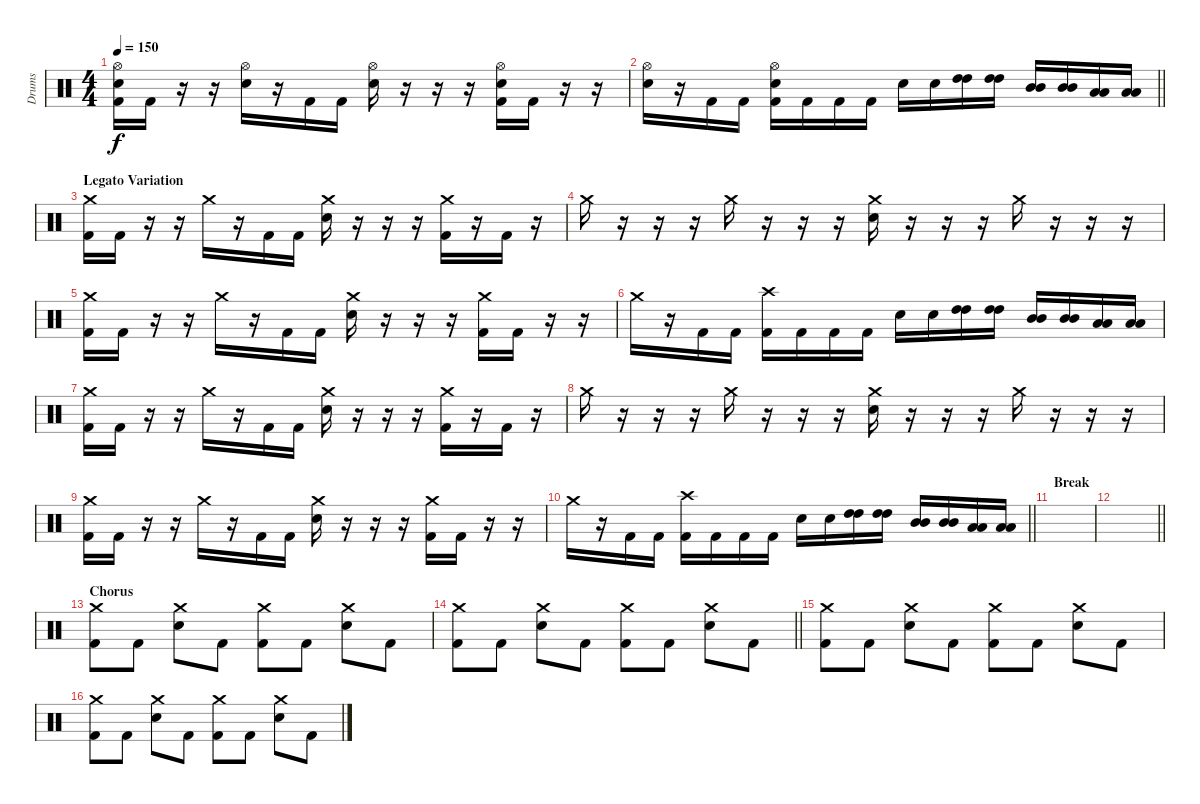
\track ("Drums" "Drums") {instrument percussion}
\staff {score}
\articulation defaults
\ts (4 4)
\tempo 150
\clef neutral
\ks c
("Hi-Hat (open)" "Electric Snare (hit)" "Kick (hit) 2").16{dy f} "Kick (hit) 2".16 r.16 r.16 ("Hi-Hat (open)" "Electric Snare (hit)").16 r.16 "Kick (hit) 2".16 "Kick (hit) 2".16 ("Hi-Hat (open)" "Electric Snare (hit)").16 r.16 r.16 r.16 ("Hi-Hat (open)" "Electric Snare (hit)" "Kick (hit) 2").16 "Kick (hit) 2".16 r.16 r.16 |
\barLineRight lightlight
("Hi-Hat (open)" "Electric Snare (hit)").16 r.16 "Kick (hit) 2".16 "Kick (hit) 2".16 ("Hi-Hat (open)" "Electric Snare (hit)" "Kick (hit) 2").16 "Kick (hit) 2".16 "Kick (hit) 2".16 "Kick (hit) 2".16 "Electric Snare (hit)".16 "Electric Snare (hit)".16 ("High Tom (hit)" "High Tom (hit)").16 ("High Tom (hit)" "High Tom (hit)").16 ("Mid Tom (hit)" "Mid Tom (hit)").16 ("Mid Tom (hit)" "Mid Tom (hit)").16 ("Low Tom (hit)" "Low Tom (hit)").16 ("Low Tom (hit)" "Low Tom (hit)").16 |
\section ("" "Legato Variation")
("Crash medium (hit)" "Kick (hit) 2").16 "Kick (hit) 2".16 r.16 r.16 "Crash medium (hit)".16 r.16 "Kick (hit) 2".16 "Kick (hit) 2".16 ("Crash medium (hit)" "Electric Snare (hit)").16 r.16 r.16 r.16 ("Crash medium (hit)" "Kick (hit) 2").16 r.16 "Kick (hit) 2".16 r.16 |
"Crash medium (hit)".16 r.16 r.16 r.16 "Crash medium (hit)".16 r.16 r.16 r.16 ("Crash medium (hit)" "Electric Snare (hit)").16 r.16 r.16 r.16 "Crash medium (hit)".16 r.16 r.16 r.16 |
("Crash medium (hit)" "Kick (hit) 2").16 "Kick (hit) 2".16 r.16 r.16 "Crash medium (hit)".16 r.16 "Kick (hit) 2".16 "Kick (hit) 2".16 ("Crash medium (hit)" "Electric Snare (hit)").16 r.16 r.16 r.16 ("Crash medium (hit)" "Kick (hit) 2").16 "Kick (hit) 2".16 r.16 r.16 |
"Crash medium (hit)".16 r.16 "Kick (hit) 2".16 "Kick (hit) 2".16 ("Crash high (hit)" "Kick (hit) 2").16 "Kick (hit) 2".16 "Kick (hit) 2".16 "Kick (hit) 2".16 "Electric Snare (hit)".16 "Electric Snare (hit)".16 ("High Tom (hit)" "High Tom (hit)").16 ("High Tom (hit)" "High Tom (hit)").16 ("Mid Tom (hit)" "Mid Tom (hit)").16 ("Mid Tom (hit)" "Mid Tom (hit)").16 ("Low Tom (hit)" "Low Tom (hit)").16 ("Low Tom (hit)" "Low Tom (hit)").16 |
("Crash medium (hit)" "Kick (hit) 2").16 "Kick (hit) 2".16 r.16 r.16 "Crash medium (hit)".16 r.16 "Kick (hit) 2".16 "Kick (hit) 2".16 ("Crash medium (hit)" "Electric Snare (hit)").16 r.16 r.16 r.16 ("Crash medium (hit)" "Kick (hit) 2").16 r.16 "Kick (hit) 2".16 r.16 |
"Crash medium (hit)".16 r.16 r.16 r.16 "Crash medium (hit)".16 r.16 r.16 r.16 ("Crash medium (hit)" "Electric Snare (hit)").16 r.16 r.16 r.16 "Crash medium (hit)".16 r.16 r.16 r.16 |
("Crash medium (hit)" "Kick (hit) 2").16 "Kick (hit) 2".16 r.16 r.16 "Crash medium (hit)".16 r.16 "Kick (hit) 2".16 "Kick (hit) 2".16 ("Crash medium (hit)" "Electric Snare (hit)").16 r.16 r.16 r.16 ("Crash medium (hit)" "Kick (hit) 2").16 "Kick (hit) 2".16 r.16 r.16 |
\barLineRight lightlight "Crash medium (hit)".16
r.16 "Kick (hit) 2".16 "Kick (hit) 2".16 ("Crash high (hit)" "Kick (hit) 2").16 "Kick (hit) 2".16 "Kick (hit) 2".16 "Kick (hit) 2".16 "Electric Snare (hit)".16 "Electric Snare (hit)".16 ("High Tom (hit)" "High Tom (hit)").16 ("High Tom (hit)" "High Tom (hit)").16 ("Mid Tom (hit)" "Mid Tom (hit)").16 ("Mid Tom (hit)" "Mid Tom (hit)").16 ("Low Tom (hit)" "Low Tom (hit)").16 ("Low Tom (hit)" "Low Tom (hit)").16 |
\section ("" "Break")
|
\barLineRight lightlight
|
\section ("" "Chorus")
("Crash medium (hit)" "Kick (hit) 2").8 "Kick (hit) 2".8 ("Crash medium (hit)" "Electric Snare (hit)").8 "Kick (hit) 2".8 ("Crash medium (hit)" "Kick (hit) 2").8 "Kick (hit) 2".8 ("Crash medium (hit)" "Electric Snare (hit)").8 "Kick (hit) 2".8 |
\barLineRight lightlight
("Crash medium (hit)" "Kick (hit) 2").8 "Kick (hit) 2".8 ("Crash medium (hit)" "Electric Snare (hit)").8 "Kick (hit) 2".8 ("Crash medium (hit)" "Kick (hit) 2").8 "Kick (hit) 2".8 ("Crash medium (hit)" "Electric Snare (hit)").8 "Kick (hit) 2".8 |
("Crash medium (hit)" "Kick (hit) 2").8 "Kick (hit) 2".8 ("Crash medium (hit)" "Electric Snare (hit)").8 "Kick (hit) 2".8 ("Crash medium (hit)" "Kick (hit) 2").8 "Kick (hit) 2".8 ("Crash medium (hit)" "Electric Snare (hit)").8 "Kick (hit) 2".8 |
("Crash medium (hit)" "Kick (hit) 2").8 "Kick (hit) 2".8 ("Crash medium (hit)" "Electric Snare (hit)").8 "Kick (hit) 2".8 ("Crash medium (hit)" "Kick (hit) 2").8 "Kick (hit) 2".8 ("Crash medium (hit)" "Electric Snare (hit)").8 "Kick (hit) 2".8
